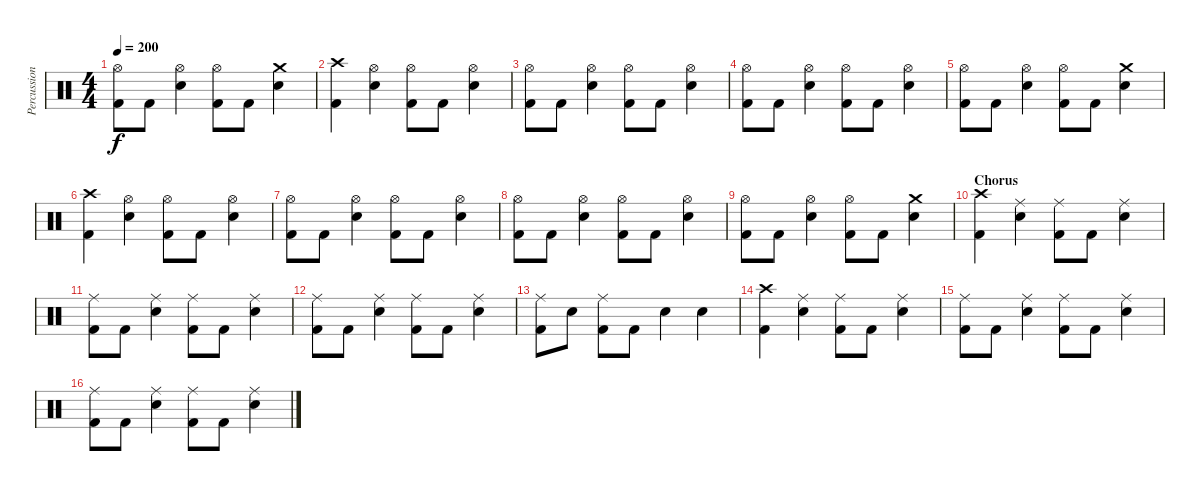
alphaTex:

\track ("Percussion" "Percussion") {instrument percussion}
\staff {score}
\articulation defaults
\ts (4 4)
\tempo 200
\clef neutral
\ks c
("Hi-Hat (open)" "Kick (hit) 2").8{dy f} "Kick (hit) 2".8 ("Hi-Hat (open)" "Snare (hit) 2").4 ("Hi-Hat (open)" "Kick (hit) 2").8 "Kick (hit) 2".8 ("Crash medium (hit)" "Snare (hit) 2").4 |
("Crash high (hit)" "Kick (hit) 2").4 ("Hi-Hat (open)" "Snare (hit) 2").4 ("Hi-Hat (open)" "Kick (hit) 2").8 "Kick (hit) 2".8 ("Hi-Hat (open)" "Snare (hit) 2").4 |
("Hi-Hat (open)" "Kick (hit) 2").8 "Kick (hit) 2".8 ("Hi-Hat (open)" "Snare (hit) 2").4 ("Hi-Hat (open)" "Kick (hit) 2").8 "Kick (hit) 2".8 ("Hi-Hat (open)" "Snare (hit) 2").4 |
("Hi-Hat (open)" "Kick (hit) 2").8 "Kick (hit) 2".8 ("Hi-Hat (open)" "Snare (hit) 2").4 ("Hi-Hat (open)" "Kick (hit) 2").8 "Kick (hit) 2".8 ("Hi-Hat (open)" "Snare (hit) 2").4 |
("Hi-Hat (open)" "Kick (hit) 2").8 "Kick (hit) 2".8 ("Hi-Hat (open)" "Snare (hit) 2").4 ("Hi-Hat (open)" "Kick (hit) 2").8 "Kick (hit) 2".8 ("Crash medium (hit)" "Snare (hit) 2").4 |
("Crash high (hit)" "Kick (hit) 2").4 ("Hi-Hat (open)" "Snare (hit) 2").4 ("Hi-Hat (open)" "Kick (hit) 2").8 "Kick (hit) 2".8 ("Hi-Hat (open)" "Snare (hit) 2").4 |
("Hi-Hat (open)" "Kick (hit) 2").8 "Kick (hit) 2".8 ("Hi-Hat (open)" "Snare (hit) 2").4 ("Hi-Hat (open)" "Kick (hit) 2").8 "Kick (hit) 2".8 ("Hi-Hat (open)" "Snare (hit) 2").4 |
("Hi-Hat (open)" "Kick (hit) 2").8 "Kick (hit) 2".8 ("Hi-Hat (open)" "Snare (hit) 2").4 ("Hi-Hat (open)" "Kick (hit) 2").8 "Kick (hit) 2".8 ("Hi-Hat (open)" "Snare (hit) 2").4 |
("Hi-Hat (open)" "Kick (hit) 2").8 "Kick (hit) 2".8 ("Hi-Hat (open)" "Snare (hit) 2").4 ("Hi-Hat (open)" "Kick (hit) 2").8 "Kick (hit) 2".8 ("Crash medium (hit)" "Snare (hit) 2").4 |
\section ("" "Chorus")
("Crash high (hit)" "Kick (hit) 2").4 ("Ride (middle)" "Snare (hit) 2").4 ("Ride (middle)" "Kick (hit) 2").8 "Kick (hit) 2".8 ("Ride (middle)" "Snare (hit) 2").4 |
("Ride (middle)" "Kick (hit) 2").8 "Kick (hit) 2".8 ("Ride (middle)" "Snare (hit) 2").4 ("Ride (middle)" "Kick (hit) 2").8 "Kick (hit) 2".8 ("Ride (middle)" "Snare (hit) 2").4 |
("Ride (middle)" "Kick (hit) 2").8 "Kick (hit) 2".8 ("Ride (middle)" "Snare (hit) 2").4 ("Ride (middle)" "Kick (hit) 2").8 "Kick (hit) 2".8 ("Ride (middle)" "Snare (hit) 2").4 |
("Ride (middle)" "Kick (hit) 2").8 "Snare (hit) 2".8 ("Ride (middle)" "Kick (hit) 2").8 "Kick (hit) 2".8 "Snare (hit) 2".4 "Snare (hit) 2".4 |
("Crash high (hit)" "Kick (hit) 2").4 ("Ride (middle)" "Snare (hit) 2").4 ("Ride (middle)" "Kick (hit) 2").8 "Kick (hit) 2".8 ("Ride (middle)" "Snare (hit) 2").4 |
("Ride (middle)" "Kick (hit) 2").8 "Kick (hit) 2".8 ("Ride (middle)" "Snare (hit) 2").4 ("Ride (middle)" "Kick (hit) 2").8 "Kick (hit) 2".8 ("Ride (middle)" "Snare (hit) 2").4 |
("Ride (middle)" "Kick (hit) 2").8 "Kick (hit) 2".8 ("Ride (middle)" "Snare (hit) 2").4 ("Ride (middle)" "Kick (hit) 2").8 "Kick (hit) 2".8 ("Ride (middle)" "Snare (hit) 2").4
